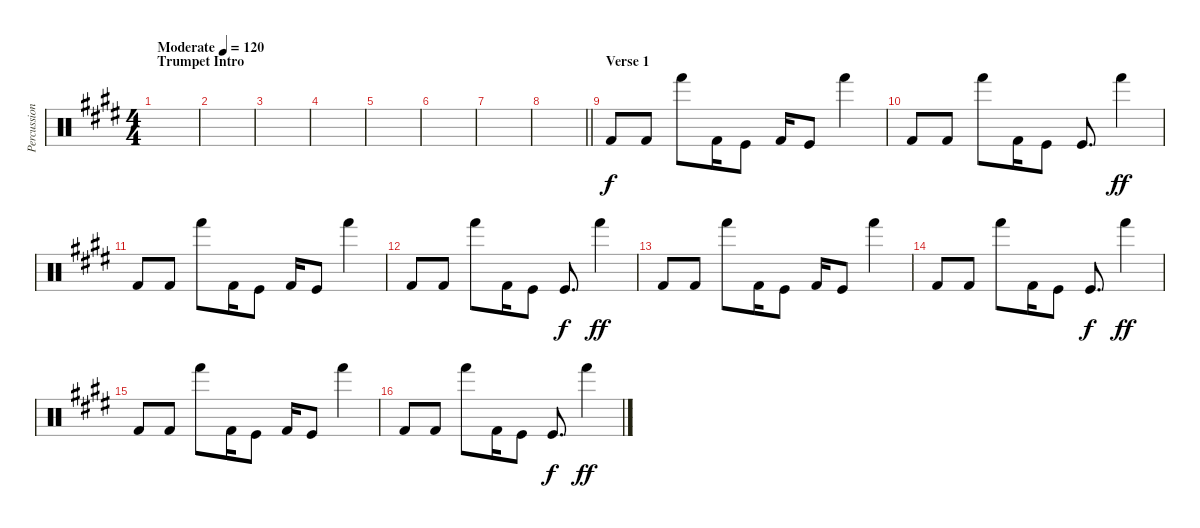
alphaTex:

\track ("Percussion" "Percussion") {instrument percussion}
\staff {score}
\articulation defaults
\ts (4 4)
\section ("" "Trumpet Intro")
\tempo (120 "Moderate")
\clef neutral
\ks e
|
|
|
|
|
|
|
\barLineRight lightlight
|
\section ("" "Verse 1")
"Kick (hit) 2".8 "Kick (hit) 2".8 "Hand (hit)".8 "Kick (hit) 2".16 "Kick (hit)".8 "Kick (hit) 2".16 "Kick (hit)".8 "Hand (hit)".4 |
"Kick (hit) 2".8 "Kick (hit) 2".8 "Hand (hit)".8 "Kick (hit) 2".16 "Kick (hit)".8 "Kick (hit)".8{d dy f} "Hand (hit)".4{dy ff} |
"Kick (hit) 2".8 "Kick (hit) 2".8 "Hand (hit)".8 "Kick (hit) 2".16 "Kick (hit)".8 "Kick (hit) 2".16 "Kick (hit)".8 "Hand (hit)".4 |
"Kick (hit) 2".8 "Kick (hit) 2".8 "Hand (hit)".8 "Kick (hit) 2".16 "Kick (hit)".8 "Kick (hit)".8{d dy f} "Hand (hit)".4{dy ff} |
"Kick (hit) 2".8 "Kick (hit) 2".8 "Hand (hit)".8 "Kick (hit) 2".16 "Kick (hit)".8 "Kick (hit) 2".16 "Kick (hit)".8 "Hand (hit)".4 |
"Kick (hit) 2".8 "Kick (hit) 2".8 "Hand (hit)".8 "Kick (hit) 2".16 "Kick (hit)".8 "Kick (hit)".8{d dy f} "Hand (hit)".4{dy ff} |
"Kick (hit) 2".8 "Kick (hit) 2".8 "Hand (hit)".8 "Kick (hit) 2".16 "Kick (hit)".8 "Kick (hit) 2".16 "Kick (hit)".8 "Hand (hit)".4 |
"Kick (hit) 2".8 "Kick (hit) 2".8 "Hand (hit)".8 "Kick (hit) 2".16 "Kick (hit)".8 "Kick (hit)".8{d dy f} "Hand (hit)".4{dy ff}
